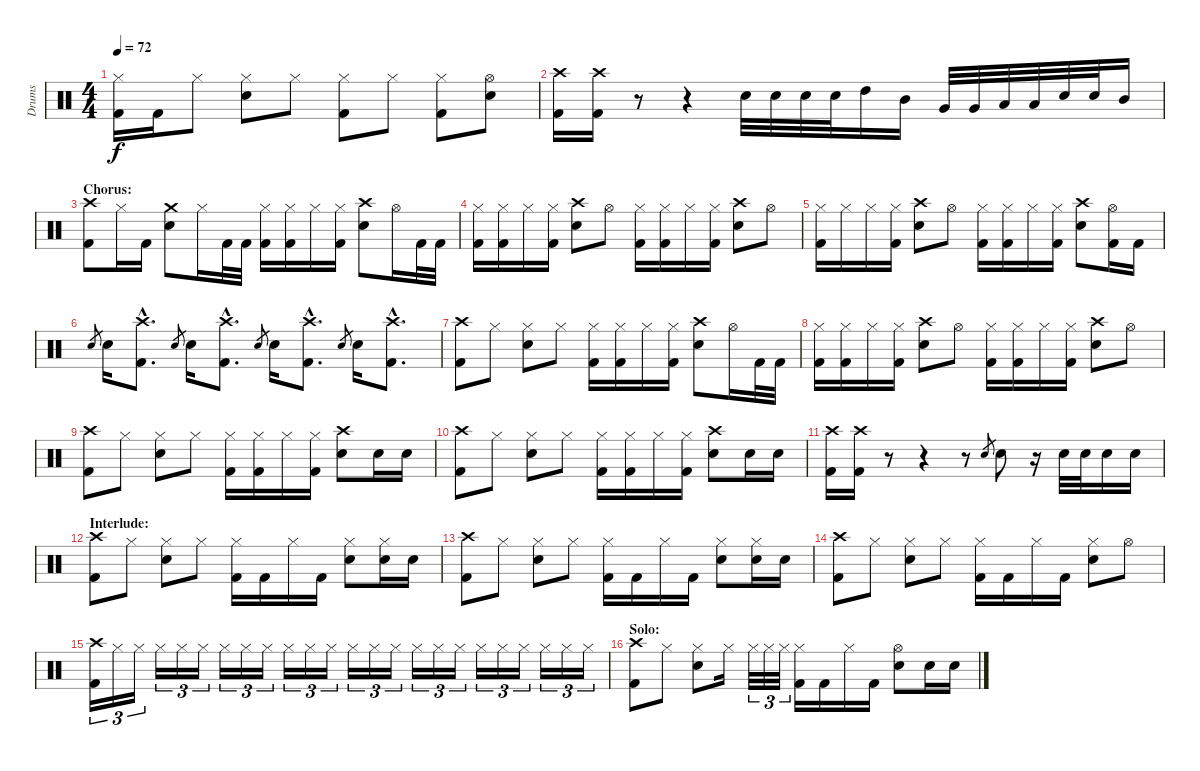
\track ("Drums" "Drums") {instrument percussion}
\staff {score}
\articulation defaults
\ts (4 4)
\tempo 72
\clef neutral
\ks c
("Hi-Hat (closed)" "Kick (hit) 2").16{dy f} "Kick (hit) 2".16 "Hi-Hat (closed)".8 ("Hi-Hat (closed)" "Electric Snare (hit)").8 "Hi-Hat (closed)".8 ("Hi-Hat (closed)" "Kick (hit) 2").8 "Hi-Hat (closed)".8 ("Hi-Hat (closed)" "Kick (hit) 2").8 ("Hi-Hat (open)" "Electric Snare (hit)").8 |
("Crash high (hit)" "Kick (hit) 2").16 ("Crash high (hit)" "Kick (hit) 2").16 r.8 r.4 "Electric Snare (hit)".32 "Electric Snare (hit)".32 "Electric Snare (hit)".32 "Electric Snare (hit)".32 "High Tom (hit)".16 "Mid Tom (hit)".16 "Very Low Tom (hit)".32 "Very Low Tom (hit)".32 "Low Tom (hit)".32 "Low Tom (hit)".32 "Electric Snare (hit)".32 "Electric Snare (hit)".32 "Mid Tom (hit)".16 |
\section ("" "Chorus:")
("Crash high (hit)" "Kick (hit) 2").8 "Hi-Hat (closed)".16 "Kick (hit) 2".16 ("Crash medium (hit)" "Electric Snare (hit)").8 "Hi-Hat (closed)".16 "Kick (hit) 2".32 "Kick (hit) 2".32 ("Hi-Hat (closed)" "Kick (hit) 2").16 ("Hi-Hat (closed)" "Kick (hit) 2").16 "Hi-Hat (closed)".16 ("Hi-Hat (closed)" "Kick (hit) 2").16 ("Crash high (hit)" "Electric Snare (hit)").8 "Hi-Hat (open)".16 "Kick (hit) 2".32 "Kick (hit) 2".32 |
("Hi-Hat (closed)" "Kick (hit) 2").16 ("Hi-Hat (closed)" "Kick (hit) 2").16 "Hi-Hat (closed)".16 ("Hi-Hat (closed)" "Kick (hit) 2").16 ("Crash high (hit)" "Electric Snare (hit)").8 "Hi-Hat (open)".8 ("Hi-Hat (closed)" "Kick (hit) 2").16 ("Hi-Hat (closed)" "Kick (hit) 2").16 "Hi-Hat (closed)".16 ("Hi-Hat (closed)" "Kick (hit) 2").16 ("Crash high (hit)" "Electric Snare (hit)").8 "Hi-Hat (open)".8 |
("Hi-Hat (closed)" "Kick (hit) 2").16 "Hi-Hat (closed)".16 "Hi-Hat (closed)".16 ("Hi-Hat (closed)" "Kick (hit) 2").16 ("Crash high (hit)" "Electric Snare (hit)").8 "Hi-Hat (open)".8 ("Hi-Hat (closed)" "Kick (hit) 2").16 ("Hi-Hat (closed)" "Kick (hit) 2").16 "Hi-Hat (closed)".16 ("Hi-Hat (closed)" "Kick (hit) 2").16 ("Crash high (hit)" "Electric Snare (hit)").8 ("Hi-Hat (open)" "Kick (hit) 2").16 "Kick (hit) 2".16 |
"Electric Snare (hit)".8{gr} "Electric Snare (hit)".16 ("Crash high (hit)"{hac} "Kick (hit) 2"{hac}).8{d} "Electric Snare (hit)".8{gr} "Electric Snare (hit)".16 ("Crash high (hit)"{hac} "Kick (hit) 2"{hac}).8{d} "Electric Snare (hit)".8{gr} "Electric Snare (hit)".16 ("Crash high (hit)"{hac} "Kick (hit) 2"{hac}).8{d} "Electric Snare (hit)".8{gr} "Electric Snare (hit)".16 ("Crash high (hit)"{hac} "Kick (hit) 2"{hac}).8{d} |
("Crash high (hit)" "Kick (hit) 2").8 "Hi-Hat (closed)".8 ("Hi-Hat (closed)" "Electric Snare (hit)").8 "Hi-Hat (closed)".8 ("Hi-Hat (closed)" "Kick (hit) 2").16 ("Hi-Hat (closed)" "Kick (hit) 2").16 "Hi-Hat (closed)".16 ("Hi-Hat (closed)" "Kick (hit) 2").16 ("Crash high (hit)" "Electric Snare (hit)").8 "Hi-Hat (open)".16 "Kick (hit) 2".32 "Kick (hit) 2".32 |
("Hi-Hat (closed)" "Kick (hit) 2").16 ("Hi-Hat (closed)" "Kick (hit) 2").16 "Hi-Hat (closed)".16 ("Hi-Hat (closed)" "Kick (hit) 2").16 ("Crash high (hit)" "Electric Snare (hit)").8 "Hi-Hat (open)".8 ("Hi-Hat (closed)" "Kick (hit) 2").16 ("Hi-Hat (closed)" "Kick (hit) 2").16 "Hi-Hat (closed)".16 ("Hi-Hat (closed)" "Kick (hit) 2").16 ("Crash high (hit)" "Electric Snare (hit)").8 "Hi-Hat (open)".8 |
("Crash high (hit)" "Kick (hit) 2").8 "Hi-Hat (closed)".8 ("Hi-Hat (closed)" "Electric Snare (hit)").8 "Hi-Hat (closed)".8 ("Hi-Hat (closed)" "Kick (hit) 2").16 ("Hi-Hat (closed)" "Kick (hit) 2").16 "Hi-Hat (closed)".16 ("Hi-Hat (closed)" "Kick (hit) 2").16 ("Crash high (hit)" "Electric Snare (hit)").8 "Electric Snare (hit)".16 "Electric Snare (hit)".16 |
("Crash high (hit)" "Kick (hit) 2").8 "Hi-Hat (closed)".8 ("Hi-Hat (closed)" "Electric Snare (hit)").8 "Hi-Hat (closed)".8 ("Hi-Hat (closed)" "Kick (hit) 2").16 ("Hi-Hat (closed)" "Kick (hit) 2").16 "Hi-Hat (closed)".16 ("Hi-Hat (closed)" "Kick (hit) 2").16 ("Crash high (hit)" "Electric Snare (hit)").8 "Electric Snare (hit)".16 "Electric Snare (hit)".16 |
("Crash high (hit)" "Kick (hit) 2").16 ("Crash high (hit)" "Kick (hit) 2").16 r.8 r.4 r.8 "Electric Snare (hit)".8{gr} "Electric Snare (hit)".8 r.16 "Electric Snare (hit)".32 "Electric Snare (hit)".32 "Electric Snare (hit)".16 "Electric Snare (hit)".16 |
\section ("" "Interlude:")
("Crash high (hit)" "Kick (hit) 2").8 "Hi-Hat (closed)".8 ("Hi-Hat (closed)" "Electric Snare (hit)").8 "Hi-Hat (closed)".8 ("Hi-Hat (closed)" "Kick (hit) 2").16 "Kick (hit) 2".16 "Hi-Hat (closed)".16 "Kick (hit) 2".16 ("Hi-Hat (closed)" "Electric Snare (hit)").8 ("Hi-Hat (closed)" "Electric Snare (hit)").16 "Electric Snare (hit)".16 |
("Crash high (hit)" "Kick (hit) 2").8 "Hi-Hat (closed)".8 ("Hi-Hat (closed)" "Electric Snare (hit)").8 "Hi-Hat (closed)".8 ("Hi-Hat (closed)" "Kick (hit) 2").16 "Kick (hit) 2".16 "Hi-Hat (closed)".16 "Kick (hit) 2".16 ("Hi-Hat (closed)" "Electric Snare (hit)").8 ("Hi-Hat (closed)" "Electric Snare (hit)").16 "Electric Snare (hit)".16 |
("Crash high (hit)" "Kick (hit) 2").8 "Hi-Hat (closed)".8 ("Hi-Hat (closed)" "Electric Snare (hit)").8 "Hi-Hat (closed)".8 ("Hi-Hat (closed)" "Kick (hit) 2").16 "Kick (hit) 2".16 "Hi-Hat (closed)".16 "Kick (hit) 2".16 ("Hi-Hat (closed)" "Electric Snare (hit)").8 "Hi-Hat (open)".8 |
("Crash high (hit)" "Kick (hit) 2").16{tu (3 2)} "Hi-Hat (closed)".16{tu (3 2)} "Hi-Hat (closed)".16{tu (3 2)} "Hi-Hat (closed)".16{tu (3 2)} "Hi-Hat (closed)".16{tu (3 2)} "Hi-Hat (closed)".16{tu (3 2)} "Hi-Hat (closed)".16{tu (3 2)} "Hi-Hat (closed)".16{tu (3 2)} "Hi-Hat (closed)".16{tu (3 2)} "Hi-Hat (closed)".16{tu (3 2)} "Hi-Hat (closed)".16{tu (3 2)} "Hi-Hat (closed)".16{tu (3 2)} "Hi-Hat (closed)".16{tu (3 2)} "Hi-Hat (closed)".16{tu (3 2)} "Hi-Hat (closed)".16{tu (3 2)} "Hi-Hat (closed)".16{tu (3 2)} "Hi-Hat (closed)".16{tu (3 2)} "Hi-Hat (closed)".16{tu (3 2)} "Hi-Hat (closed)".16{tu (3 2)} "Hi-Hat (closed)".16{tu (3 2)} "Hi-Hat (closed)".16{tu (3 2)} "Hi-Hat (closed)".16{tu (3 2)} "Hi-Hat (closed)".16{tu (3 2)} "Hi-Hat (closed)".16{tu (3 2)} |
\section ("" "Solo:")
("Crash high (hit)" "Kick (hit) 2").8 "Hi-Hat (closed)".8 ("Hi-Hat (closed)" "Electric Snare (hit)").8 "Hi-Hat (closed)".16 "Hi-Hat (closed)".32{tu (3 2)} "Hi-Hat (closed)".32{tu (3 2)} "Hi-Hat (closed)".32{tu (3 2)} ("Hi-Hat (closed)" "Kick (hit) 2").16 "Kick (hit) 2".16 "Hi-Hat (closed)".16 "Kick (hit) 2".16 ("Hi-Hat (open)" "Electric Snare (hit)").8 "Electric Snare (hit)".16 "Electric Snare (hit)".16
